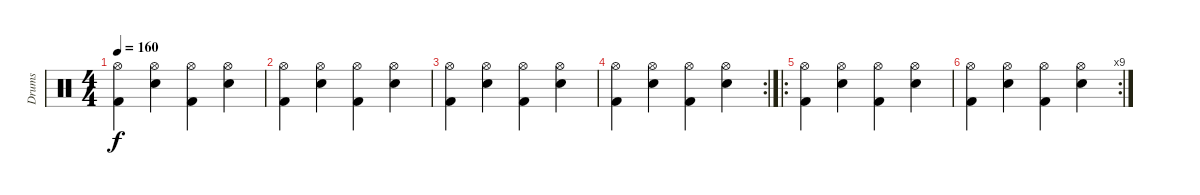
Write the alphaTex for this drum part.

\track ("Drums" "Drums") {instrument percussion}
\staff {score}
\articulation defaults
\ts (4 4)
\tempo 160
\clef neutral
\ks c
("Hi-Hat (open)" "Kick (hit) 2").4{dy f} ("Hi-Hat (open)" "Electric Snare (hit)").4 ("Hi-Hat (open)" "Kick (hit) 2").4 ("Hi-Hat (open)" "Electric Snare (hit)").4 |
("Hi-Hat (open)" "Kick (hit) 2").4 ("Hi-Hat (open)" "Electric Snare (hit)").4 ("Hi-Hat (open)" "Kick (hit) 2").4 ("Hi-Hat (open)" "Electric Snare (hit)").4 |
("Hi-Hat (open)" "Kick (hit) 2").4 ("Hi-Hat (open)" "Electric Snare (hit)").4 ("Hi-Hat (open)" "Kick (hit) 2").4 ("Hi-Hat (open)" "Electric Snare (hit)").4 |
\rc 2
("Hi-Hat (open)" "Kick (hit) 2").4 ("Hi-Hat (open)" "Electric Snare (hit)").4 ("Hi-Hat (open)" "Kick (hit) 2").4 ("Hi-Hat (open)" "Electric Snare (hit)").4 |
\ro
("Hi-Hat (open)" "Kick (hit) 2").4 ("Hi-Hat (open)" "Electric Snare (hit)").4 ("Hi-Hat (open)" "Kick (hit) 2").4 ("Hi-Hat (open)" "Electric Snare (hit)").4 |
\rc 9
("Hi-Hat (open)" "Kick (hit) 2").4 ("Hi-Hat (open)" "Electric Snare (hit)").4 ("Hi-Hat (open)" "Kick (hit) 2").4 ("Hi-Hat (open)" "Electric Snare (hit)").4
